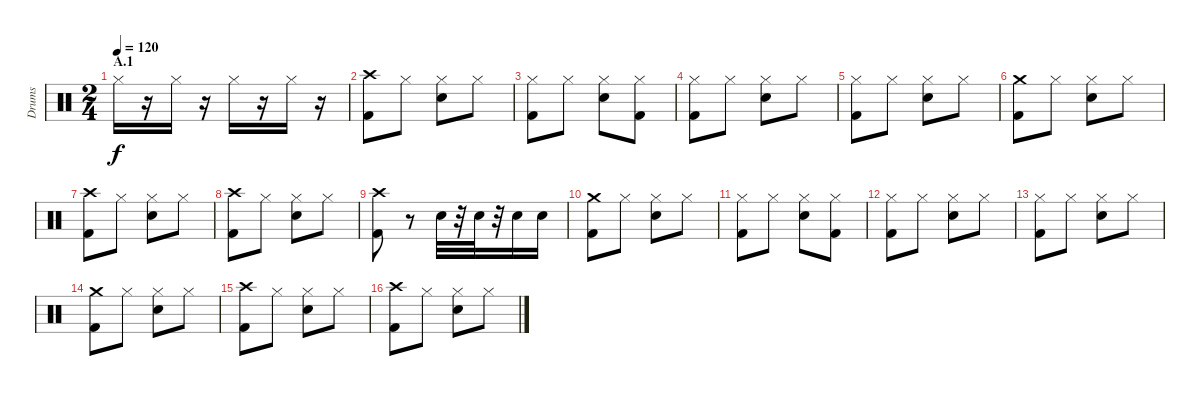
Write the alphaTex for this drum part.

\track ("Drums" "Drums") {instrument percussion}
\staff {score}
\articulation defaults
\ts (2 4)
\section ("" "A.1")
\tempo 120
\clef neutral
\ks c "Hi-Hat (closed)".16{dy f}
r.16 "Hi-Hat (closed)".16 r.16 "Hi-Hat (closed)".16 r.16 "Hi-Hat (closed)".16 r.16 |
("Crash high (hit)" "Kick (hit) 2").8 "Hi-Hat (closed)".8 ("Snare (hit) 2" "Hi-Hat (closed)").8 "Hi-Hat (closed)".8 |
("Hi-Hat (closed)" "Kick (hit) 2").8 "Hi-Hat (closed)".8 ("Snare (hit) 2" "Hi-Hat (closed)").8 ("Kick (hit) 2" "Hi-Hat (closed)").8 |
("Kick (hit) 2" "Hi-Hat (closed)").8 "Hi-Hat (closed)".8 ("Snare (hit) 2" "Hi-Hat (closed)").8 "Hi-Hat (closed)".8 |
("Kick (hit) 2" "Hi-Hat (closed)").8 "Hi-Hat (closed)".8 ("Snare (hit) 2" "Hi-Hat (closed)").8 "Hi-Hat (closed)".8 |
("Crash medium (hit)" "Kick (hit) 2").8 "Hi-Hat (closed)".8 ("Snare (hit) 2" "Hi-Hat (closed)").8 "Hi-Hat (closed)".8 |
("Crash high (hit)" "Kick (hit) 2").8 "Hi-Hat (closed)".8 ("Snare (hit) 2" "Hi-Hat (closed)").8 "Hi-Hat (closed)".8 |
("Crash high (hit)" "Kick (hit) 2").8 "Hi-Hat (closed)".8 ("Snare (hit) 2" "Hi-Hat (closed)").8 "Hi-Hat (closed)".8 |
("Crash high (hit)" "Kick (hit) 2").8 r.8 "Snare (hit) 2".32 r.32 "Snare (hit) 2".32 r.32 "Snare (hit) 2".16 "Snare (hit) 2".16 |
("Crash medium (hit)" "Kick (hit) 2").8 "Hi-Hat (closed)".8 ("Snare (hit) 2" "Hi-Hat (closed)").8 "Hi-Hat (closed)".8 |
("Hi-Hat (closed)" "Kick (hit) 2").8 "Hi-Hat (closed)".8 ("Snare (hit) 2" "Hi-Hat (closed)").8 ("Kick (hit) 2" "Hi-Hat (closed)").8 |
("Kick (hit) 2" "Hi-Hat (closed)").8 "Hi-Hat (closed)".8 ("Snare (hit) 2" "Hi-Hat (closed)").8 "Hi-Hat (closed)".8 |
("Kick (hit) 2" "Hi-Hat (closed)").8 "Hi-Hat (closed)".8 ("Snare (hit) 2" "Hi-Hat (closed)").8 "Hi-Hat (closed)".8 |
("Crash medium (hit)" "Kick (hit) 2").8 "Hi-Hat (closed)".8 ("Snare (hit) 2" "Hi-Hat (closed)").8 "Hi-Hat (closed)".8 |
("Crash high (hit)" "Kick (hit) 2").8 "Hi-Hat (closed)".8 ("Snare (hit) 2" "Hi-Hat (closed)").8 "Hi-Hat (closed)".8 |
("Crash high (hit)" "Kick (hit) 2").8 "Hi-Hat (closed)".8 ("Snare (hit) 2" "Hi-Hat (closed)").8 "Hi-Hat (closed)".8
